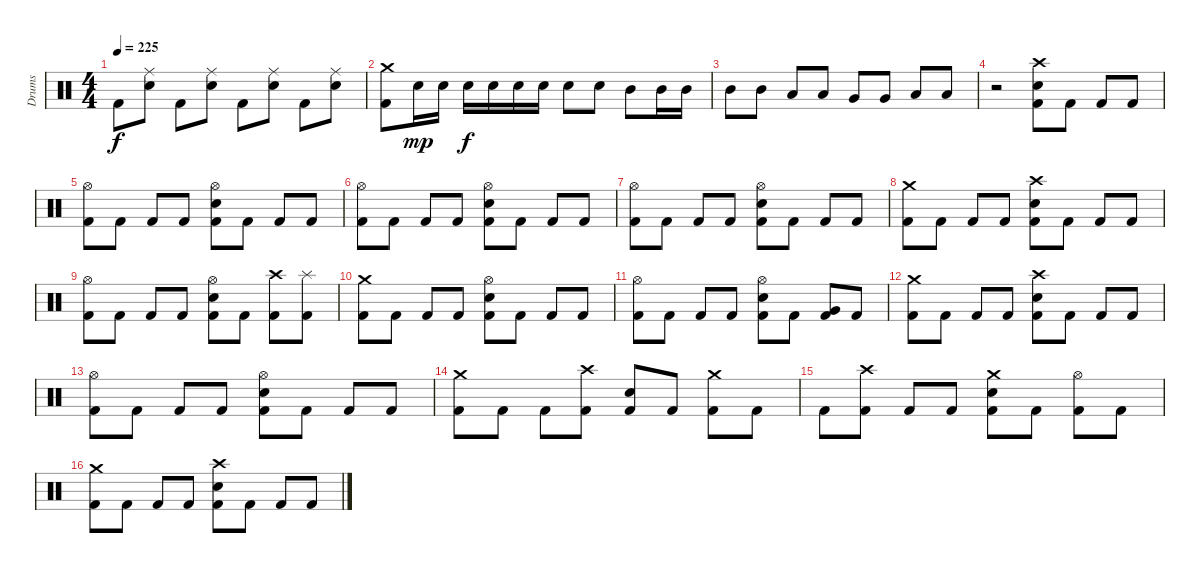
\track ("Drums" "Drums") {instrument percussion}
\staff {score}
\articulation defaults
\ts (4 4)
\tempo 225
\clef neutral
\ks c "Kick (hit) 2".8{dy f}
("Electric Snare (hit)" "Ride (middle)").8 "Kick (hit) 2".8 ("Electric Snare (hit)" "Ride (middle)").8 "Kick (hit) 2".8 ("Electric Snare (hit)" "Ride (middle)").8 "Kick (hit) 2".8 ("Electric Snare (hit)" "Ride (middle)").8 |
("Kick (hit) 2" "Crash medium (hit)").8 "Electric Snare (hit)".16{dy mp} "Electric Snare (hit)".16 "Electric Snare (hit)".16{dy f} "Electric Snare (hit)".16 "Electric Snare (hit)".16 "Electric Snare (hit)".16 "Electric Snare (hit)".8 "Electric Snare (hit)".8 "Mid Tom (hit)".8 "Mid Tom (hit)".16 "Mid Tom (hit)".16 |
"Mid Tom (hit)".8 "Mid Tom (hit)".8 "Low Tom (hit)".8 "Low Tom (hit)".8 "Very Low Tom (hit)".8 "Very Low Tom (hit)".8 "Low Floor Tom (hit)".8 "Low Floor Tom (hit)".8 |
r.2 ("Electric Snare (hit)" "Crash high (hit)" "Kick (hit) 2").8 "Kick (hit) 2".8 "Kick (hit) 2".8 "Kick (hit) 2".8 |
("Hi-Hat (open)" "Kick (hit) 2").8 "Kick (hit) 2".8 "Kick (hit) 2".8 "Kick (hit) 2".8 ("Hi-Hat (open)" "Kick (hit) 2" "Electric Snare (hit)").8 "Kick (hit) 2".8 "Kick (hit) 2".8 "Kick (hit) 2".8 |
("Hi-Hat (open)" "Kick (hit) 2").8 "Kick (hit) 2".8 "Kick (hit) 2".8 "Kick (hit) 2".8 ("Hi-Hat (open)" "Kick (hit) 2" "Electric Snare (hit)").8 "Kick (hit) 2".8 "Kick (hit) 2".8 "Kick (hit) 2".8 |
("Hi-Hat (open)" "Kick (hit) 2").8 "Kick (hit) 2".8 "Kick (hit) 2".8 "Kick (hit) 2".8 ("Hi-Hat (open)" "Kick (hit) 2" "Electric Snare (hit)").8 "Kick (hit) 2".8 "Kick (hit) 2".8 "Kick (hit) 2".8 |
("Crash medium (hit)" "Kick (hit) 2").8 "Kick (hit) 2".8 "Kick (hit) 2".8 "Kick (hit) 2".8 ("Crash high (hit)" "Kick (hit) 2" "Electric Snare (hit)").8 "Kick (hit) 2".8 "Kick (hit) 2".8 "Kick (hit) 2".8 |
("Hi-Hat (open)" "Kick (hit) 2").8 "Kick (hit) 2".8 "Kick (hit) 2".8 "Kick (hit) 2".8 ("Hi-Hat (open)" "Kick (hit) 2" "Electric Snare (hit)").8 "Kick (hit) 2".8 ("Crash high (hit)" "Kick (hit) 2").8 ("Splash (hit)" "Kick (hit) 2").8 |
("Crash medium (hit)" "Kick (hit) 2").8 "Kick (hit) 2".8 "Kick (hit) 2".8 "Kick (hit) 2".8 ("Hi-Hat (open)" "Kick (hit) 2" "Electric Snare (hit)").8 "Kick (hit) 2".8 "Kick (hit) 2".8 "Kick (hit) 2".8 |
("Hi-Hat (open)" "Kick (hit) 2").8 "Kick (hit) 2".8 "Kick (hit) 2".8 "Kick (hit) 2".8 ("Hi-Hat (open)" "Kick (hit) 2" "Electric Snare (hit)").8 "Kick (hit) 2".8 ("Very Low Tom (hit)" "Kick (hit) 2").8 "Kick (hit) 2".8 |
("Crash medium (hit)" "Kick (hit) 2").8 "Kick (hit) 2".8 "Kick (hit) 2".8 "Kick (hit) 2".8 ("Crash high (hit)" "Kick (hit) 2" "Electric Snare (hit)").8 "Kick (hit) 2".8 "Kick (hit) 2".8 "Kick (hit) 2".8 |
("Hi-Hat (open)" "Kick (hit) 2").8 "Kick (hit) 2".8 "Kick (hit) 2".8 "Kick (hit) 2".8 ("Hi-Hat (open)" "Kick (hit) 2" "Electric Snare (hit)").8 "Kick (hit) 2".8 "Kick (hit) 2".8 "Kick (hit) 2".8 |
("Crash medium (hit)" "Kick (hit) 2").8 "Kick (hit) 2".8 "Kick (hit) 2".8 ("Crash high (hit)" "Kick (hit) 2").8 ("Kick (hit) 2" "Electric Snare (hit)").8 "Kick (hit) 2".8 ("Crash medium (hit)" "Kick (hit) 2").8 "Kick (hit) 2".8 |
"Kick (hit) 2".8 ("Crash high (hit)" "Kick (hit) 2").8 "Kick (hit) 2".8 "Kick (hit) 2".8 ("Crash medium (hit)" "Kick (hit) 2" "Electric Snare (hit)").8 "Kick (hit) 2".8 ("Hi-Hat (open)" "Kick (hit) 2").8 "Kick (hit) 2".8 |
("Kick (hit) 2" "Crash medium (hit)").8 "Kick (hit) 2".8 "Kick (hit) 2".8 "Kick (hit) 2".8 ("Kick (hit) 2" "Crash high (hit)" "Electric Snare (hit)").8 "Kick (hit) 2".8 "Kick (hit) 2".8 "Kick (hit) 2".8
